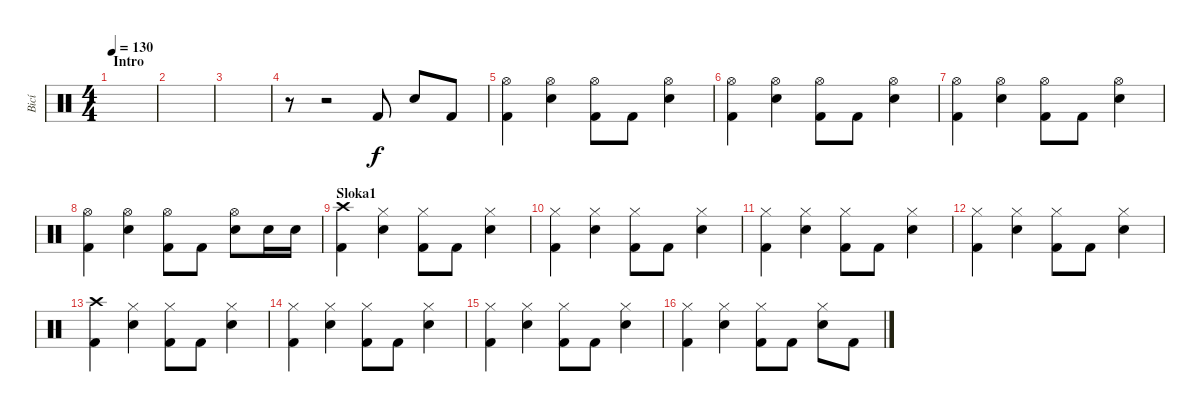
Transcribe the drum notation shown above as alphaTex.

\track ("Bicí" "Bicí") {instrument percussion}
\staff {score}
\articulation defaults
\ts (4 4)
\section ("" "Intro")
\tempo 130
\clef neutral
\ks c
|
|
|
r.8 r.2 "Kick (hit) 2".8 "Snare (hit) 2".8 "Kick (hit) 2".8 |
("Hi-Hat (open)" "Kick (hit) 2").4 ("Hi-Hat (open)" "Snare (hit) 2").4 ("Hi-Hat (open)" "Kick (hit) 2").8 "Kick (hit) 2".8 ("Hi-Hat (open)" "Snare (hit) 2").4 |
("Hi-Hat (open)" "Kick (hit) 2").4 ("Hi-Hat (open)" "Snare (hit) 2").4 ("Hi-Hat (open)" "Kick (hit) 2").8 "Kick (hit) 2".8 ("Hi-Hat (open)" "Snare (hit) 2").4 |
("Hi-Hat (open)" "Kick (hit) 2").4 ("Hi-Hat (open)" "Snare (hit) 2").4 ("Hi-Hat (open)" "Kick (hit) 2").8 "Kick (hit) 2".8 ("Hi-Hat (open)" "Snare (hit) 2").4 |
("Hi-Hat (open)" "Kick (hit) 2").4 ("Hi-Hat (open)" "Snare (hit) 2").4 ("Hi-Hat (open)" "Kick (hit) 2").8 "Kick (hit) 2".8 ("Hi-Hat (open)" "Snare (hit) 2").8 "Snare (hit) 2".16 "Snare (hit) 2".16 |
\section ("" "Sloka1")
("Crash high (hit)" "Kick (hit) 2").4 ("Hi-Hat (closed)" "Snare (hit) 2").4 ("Hi-Hat (closed)" "Kick (hit) 2").8 "Kick (hit) 2".8 ("Hi-Hat (closed)" "Snare (hit) 2").4 |
("Hi-Hat (closed)" "Kick (hit) 2").4 ("Hi-Hat (closed)" "Snare (hit) 2").4 ("Hi-Hat (closed)" "Kick (hit) 2").8 "Kick (hit) 2".8 ("Hi-Hat (closed)" "Snare (hit) 2").4 |
("Hi-Hat (closed)" "Kick (hit) 2").4 ("Hi-Hat (closed)" "Snare (hit) 2").4 ("Hi-Hat (closed)" "Kick (hit) 2").8 "Kick (hit) 2".8 ("Hi-Hat (closed)" "Snare (hit) 2").4 |
("Hi-Hat (closed)" "Kick (hit) 2").4 ("Hi-Hat (closed)" "Snare (hit) 2").4 ("Hi-Hat (closed)" "Kick (hit) 2").8 "Kick (hit) 2".8 ("Hi-Hat (closed)" "Snare (hit) 2").4 |
("Crash high (hit)" "Kick (hit) 2").4 ("Hi-Hat (closed)" "Snare (hit) 2").4 ("Hi-Hat (closed)" "Kick (hit) 2").8 "Kick (hit) 2".8 ("Hi-Hat (closed)" "Snare (hit) 2").4 |
("Hi-Hat (closed)" "Kick (hit) 2").4 ("Hi-Hat (closed)" "Snare (hit) 2").4 ("Hi-Hat (closed)" "Kick (hit) 2").8 "Kick (hit) 2".8 ("Hi-Hat (closed)" "Snare (hit) 2").4 |
("Hi-Hat (closed)" "Kick (hit) 2").4 ("Hi-Hat (closed)" "Snare (hit) 2").4 ("Hi-Hat (closed)" "Kick (hit) 2").8 "Kick (hit) 2".8 ("Hi-Hat (closed)" "Snare (hit) 2").4 |
("Hi-Hat (closed)" "Kick (hit) 2").4 ("Hi-Hat (closed)" "Snare (hit) 2").4 ("Hi-Hat (closed)" "Kick (hit) 2").8 "Kick (hit) 2".8 ("Hi-Hat (closed)" "Snare (hit) 2").8 "Kick (hit) 2".8
